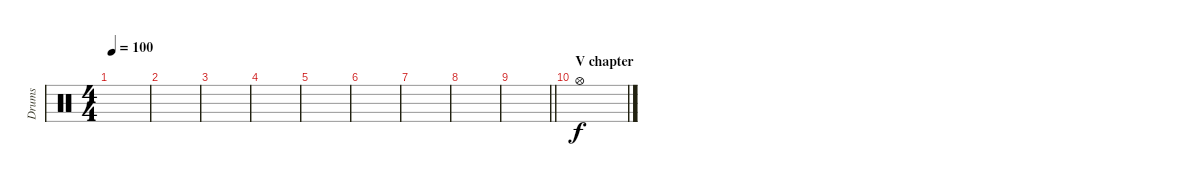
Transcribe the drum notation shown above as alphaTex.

\track ("Drums" "Drums") {instrument percussion}
\staff {score}
\articulation defaults
\ts (4 4)
\tempo 100
\clef neutral
\ks c
|
|
|
|
|
|
|
|
\barLineRight lightlight
|
\section ("" "V chapter")
"Hi-Hat (open)".1
